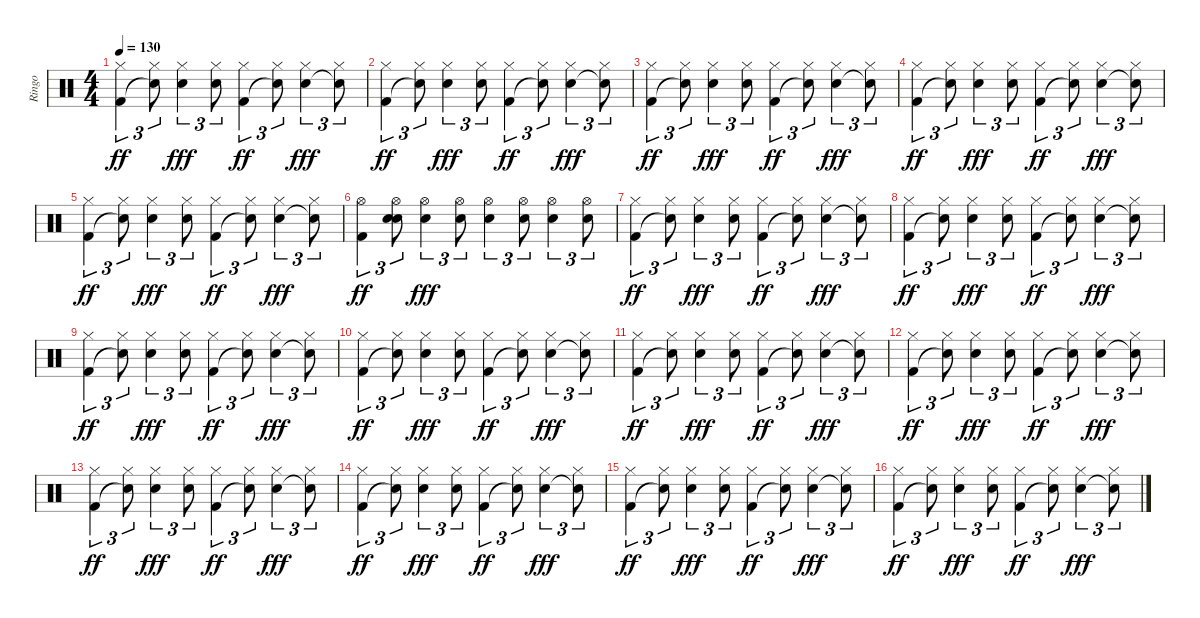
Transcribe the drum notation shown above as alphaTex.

\track ("Ringo" "Ringo") {instrument percussion}
\staff {score}
\articulation defaults
\ts (4 4)
\tempo 130
\clef neutral
\ks c
("Hi-Hat (closed)" "Kick (hit) 2").4{tu (3 2) dy ff} ("Hi-Hat (closed)" "Snare (hit)"{t}).8{tu (3 2)} ("Hi-Hat (closed)" "Electric Snare (hit)").4{tu (3 2) dy fff} ("Hi-Hat (closed)" "Electric Snare (hit)").8{tu (3 2)} ("Hi-Hat (closed)" "Kick (hit) 2").4{tu (3 2) dy ff} ("Hi-Hat (closed)" "Snare (hit)"{t}).8{tu (3 2)} ("Hi-Hat (closed)" "Electric Snare (hit)").4{tu (3 2) dy fff} ("Hi-Hat (closed)" "Snare (hit)"{t}).8{tu (3 2)} |
("Hi-Hat (closed)" "Kick (hit) 2").4{tu (3 2) dy ff} ("Hi-Hat (closed)" "Snare (hit)"{t}).8{tu (3 2)} ("Hi-Hat (closed)" "Electric Snare (hit)").4{tu (3 2) dy fff} ("Hi-Hat (closed)" "Electric Snare (hit)").8{tu (3 2)} ("Hi-Hat (closed)" "Kick (hit) 2").4{tu (3 2) dy ff} ("Hi-Hat (closed)" "Snare (hit)"{t}).8{tu (3 2)} ("Hi-Hat (closed)" "Electric Snare (hit)").4{tu (3 2) dy fff} ("Hi-Hat (closed)" "Snare (hit)"{t}).8{tu (3 2)} |
("Hi-Hat (closed)" "Kick (hit) 2").4{tu (3 2) dy ff} ("Hi-Hat (closed)" "Snare (hit)"{t}).8{tu (3 2)} ("Hi-Hat (closed)" "Electric Snare (hit)").4{tu (3 2) dy fff} ("Hi-Hat (closed)" "Electric Snare (hit)").8{tu (3 2)} ("Hi-Hat (closed)" "Kick (hit) 2").4{tu (3 2) dy ff} ("Hi-Hat (closed)" "Snare (hit)"{t}).8{tu (3 2)} ("Hi-Hat (closed)" "Electric Snare (hit)").4{tu (3 2) dy fff} ("Hi-Hat (closed)" "Snare (hit)"{t}).8{tu (3 2)} |
("Hi-Hat (closed)" "Kick (hit) 2").4{tu (3 2) dy ff} ("Hi-Hat (closed)" "Snare (hit)"{t}).8{tu (3 2)} ("Hi-Hat (closed)" "Electric Snare (hit)").4{tu (3 2) dy fff} ("Hi-Hat (closed)" "Electric Snare (hit)").8{tu (3 2)} ("Hi-Hat (closed)" "Kick (hit) 2").4{tu (3 2) dy ff} ("Hi-Hat (closed)" "Snare (hit)"{t}).8{tu (3 2)} ("Hi-Hat (closed)" "Electric Snare (hit)").4{tu (3 2) dy fff} ("Hi-Hat (closed)" "Snare (hit)"{t}).8{tu (3 2)} |
("Hi-Hat (closed)" "Kick (hit) 2").4{tu (3 2) dy ff} ("Hi-Hat (closed)" "Snare (hit)"{t}).8{tu (3 2)} ("Hi-Hat (closed)" "Electric Snare (hit)").4{tu (3 2) dy fff} ("Hi-Hat (closed)" "Electric Snare (hit)").8{tu (3 2)} ("Hi-Hat (closed)" "Kick (hit) 2").4{tu (3 2) dy ff} ("Hi-Hat (closed)" "Snare (hit)"{t}).8{tu (3 2)} ("Hi-Hat (closed)" "Electric Snare (hit)").4{tu (3 2) dy fff} ("Hi-Hat (closed)" "Snare (hit)"{t}).8{tu (3 2)} |
("Hi-Hat (open)" "Kick (hit) 2").4{tu (3 2) dy ff} ("Hi-Hat (open)" "Electric Snare (hit)" "Snare (hit)").8{tu (3 2)} ("Hi-Hat (open)" "Electric Snare (hit)").4{tu (3 2) dy fff} ("Hi-Hat (open)" "Electric Snare (hit)").8{tu (3 2)} ("Hi-Hat (open)" "Electric Snare (hit)").4{tu (3 2)} ("Hi-Hat (open)" "Electric Snare (hit)").8{tu (3 2)} ("Hi-Hat (open)" "Electric Snare (hit)").4{tu (3 2)} ("Hi-Hat (open)" "Electric Snare (hit)").8{tu (3 2)} |
("Hi-Hat (closed)" "Kick (hit) 2").4{tu (3 2) dy ff} ("Hi-Hat (closed)" "Snare (hit)"{t}).8{tu (3 2)} ("Hi-Hat (closed)" "Electric Snare (hit)").4{tu (3 2) dy fff} ("Hi-Hat (closed)" "Electric Snare (hit)").8{tu (3 2)} ("Hi-Hat (closed)" "Kick (hit) 2").4{tu (3 2) dy ff} ("Hi-Hat (closed)" "Snare (hit)"{t}).8{tu (3 2)} ("Hi-Hat (closed)" "Electric Snare (hit)").4{tu (3 2) dy fff} ("Hi-Hat (closed)" "Snare (hit)"{t}).8{tu (3 2)} |
("Hi-Hat (closed)" "Kick (hit) 2").4{tu (3 2) dy ff} ("Hi-Hat (closed)" "Snare (hit)"{t}).8{tu (3 2)} ("Hi-Hat (closed)" "Electric Snare (hit)").4{tu (3 2) dy fff} ("Hi-Hat (closed)" "Electric Snare (hit)").8{tu (3 2)} ("Hi-Hat (closed)" "Kick (hit) 2").4{tu (3 2) dy ff} ("Hi-Hat (closed)" "Snare (hit)"{t}).8{tu (3 2)} ("Hi-Hat (closed)" "Electric Snare (hit)").4{tu (3 2) dy fff} ("Hi-Hat (closed)" "Snare (hit)"{t}).8{tu (3 2)} |
("Hi-Hat (closed)" "Kick (hit) 2").4{tu (3 2) dy ff} ("Hi-Hat (closed)" "Snare (hit)"{t}).8{tu (3 2)} ("Hi-Hat (closed)" "Electric Snare (hit)").4{tu (3 2) dy fff} ("Hi-Hat (closed)" "Electric Snare (hit)").8{tu (3 2)} ("Hi-Hat (closed)" "Kick (hit) 2").4{tu (3 2) dy ff} ("Hi-Hat (closed)" "Snare (hit)"{t}).8{tu (3 2)} ("Hi-Hat (closed)" "Electric Snare (hit)").4{tu (3 2) dy fff} ("Hi-Hat (closed)" "Snare (hit)"{t}).8{tu (3 2)} |
("Hi-Hat (closed)" "Kick (hit) 2").4{tu (3 2) dy ff} ("Hi-Hat (closed)" "Snare (hit)"{t}).8{tu (3 2)} ("Hi-Hat (closed)" "Electric Snare (hit)").4{tu (3 2) dy fff} ("Hi-Hat (closed)" "Electric Snare (hit)").8{tu (3 2)} ("Hi-Hat (closed)" "Kick (hit) 2").4{tu (3 2) dy ff} ("Hi-Hat (closed)" "Snare (hit)"{t}).8{tu (3 2)} ("Hi-Hat (closed)" "Electric Snare (hit)").4{tu (3 2) dy fff} ("Hi-Hat (closed)" "Snare (hit)"{t}).8{tu (3 2)} |
("Hi-Hat (closed)" "Kick (hit) 2").4{tu (3 2) dy ff} ("Hi-Hat (closed)" "Snare (hit)"{t}).8{tu (3 2)} ("Hi-Hat (closed)" "Electric Snare (hit)").4{tu (3 2) dy fff} ("Hi-Hat (closed)" "Electric Snare (hit)").8{tu (3 2)} ("Hi-Hat (closed)" "Kick (hit) 2").4{tu (3 2) dy ff} ("Hi-Hat (closed)" "Snare (hit)"{t}).8{tu (3 2)} ("Hi-Hat (closed)" "Electric Snare (hit)").4{tu (3 2) dy fff} ("Hi-Hat (closed)" "Snare (hit)"{t}).8{tu (3 2)} |
("Hi-Hat (closed)" "Kick (hit) 2").4{tu (3 2) dy ff} ("Hi-Hat (closed)" "Snare (hit)"{t}).8{tu (3 2)} ("Hi-Hat (closed)" "Electric Snare (hit)").4{tu (3 2) dy fff} ("Hi-Hat (closed)" "Electric Snare (hit)").8{tu (3 2)} ("Hi-Hat (closed)" "Kick (hit) 2").4{tu (3 2) dy ff} ("Hi-Hat (closed)" "Snare (hit)"{t}).8{tu (3 2)} ("Hi-Hat (closed)" "Electric Snare (hit)").4{tu (3 2) dy fff} ("Hi-Hat (closed)" "Snare (hit)"{t}).8{tu (3 2)} |
("Hi-Hat (closed)" "Kick (hit) 2").4{tu (3 2) dy ff} ("Hi-Hat (closed)" "Snare (hit)"{t}).8{tu (3 2)} ("Hi-Hat (closed)" "Electric Snare (hit)").4{tu (3 2) dy fff} ("Hi-Hat (closed)" "Electric Snare (hit)").8{tu (3 2)} ("Hi-Hat (closed)" "Kick (hit) 2").4{tu (3 2) dy ff} ("Hi-Hat (closed)" "Snare (hit)"{t}).8{tu (3 2)} ("Hi-Hat (closed)" "Electric Snare (hit)").4{tu (3 2) dy fff} ("Hi-Hat (closed)" "Snare (hit)"{t}).8{tu (3 2)} |
("Hi-Hat (closed)" "Kick (hit) 2").4{tu (3 2) dy ff} ("Hi-Hat (closed)" "Snare (hit)"{t}).8{tu (3 2)} ("Hi-Hat (closed)" "Electric Snare (hit)").4{tu (3 2) dy fff} ("Hi-Hat (closed)" "Electric Snare (hit)").8{tu (3 2)} ("Hi-Hat (closed)" "Kick (hit) 2").4{tu (3 2) dy ff} ("Hi-Hat (closed)" "Snare (hit)"{t}).8{tu (3 2)} ("Hi-Hat (closed)" "Electric Snare (hit)").4{tu (3 2) dy fff} ("Hi-Hat (closed)" "Snare (hit)"{t}).8{tu (3 2)} |
("Hi-Hat (closed)" "Kick (hit) 2").4{tu (3 2) dy ff} ("Hi-Hat (closed)" "Snare (hit)"{t}).8{tu (3 2)} ("Hi-Hat (closed)" "Electric Snare (hit)").4{tu (3 2) dy fff} ("Hi-Hat (closed)" "Electric Snare (hit)").8{tu (3 2)} ("Hi-Hat (closed)" "Kick (hit) 2").4{tu (3 2) dy ff} ("Hi-Hat (closed)" "Snare (hit)"{t}).8{tu (3 2)} ("Hi-Hat (closed)" "Electric Snare (hit)").4{tu (3 2) dy fff} ("Hi-Hat (closed)" "Snare (hit)"{t}).8{tu (3 2)} |
("Hi-Hat (closed)" "Kick (hit) 2").4{tu (3 2) dy ff} ("Hi-Hat (closed)" "Snare (hit)"{t}).8{tu (3 2)} ("Hi-Hat (closed)" "Electric Snare (hit)").4{tu (3 2) dy fff} ("Hi-Hat (closed)" "Electric Snare (hit)").8{tu (3 2)} ("Hi-Hat (closed)" "Kick (hit) 2").4{tu (3 2) dy ff} ("Hi-Hat (closed)" "Snare (hit)"{t}).8{tu (3 2)} ("Hi-Hat (closed)" "Electric Snare (hit)").4{tu (3 2) dy fff} ("Hi-Hat (closed)" "Snare (hit)"{t}).8{tu (3 2)}
